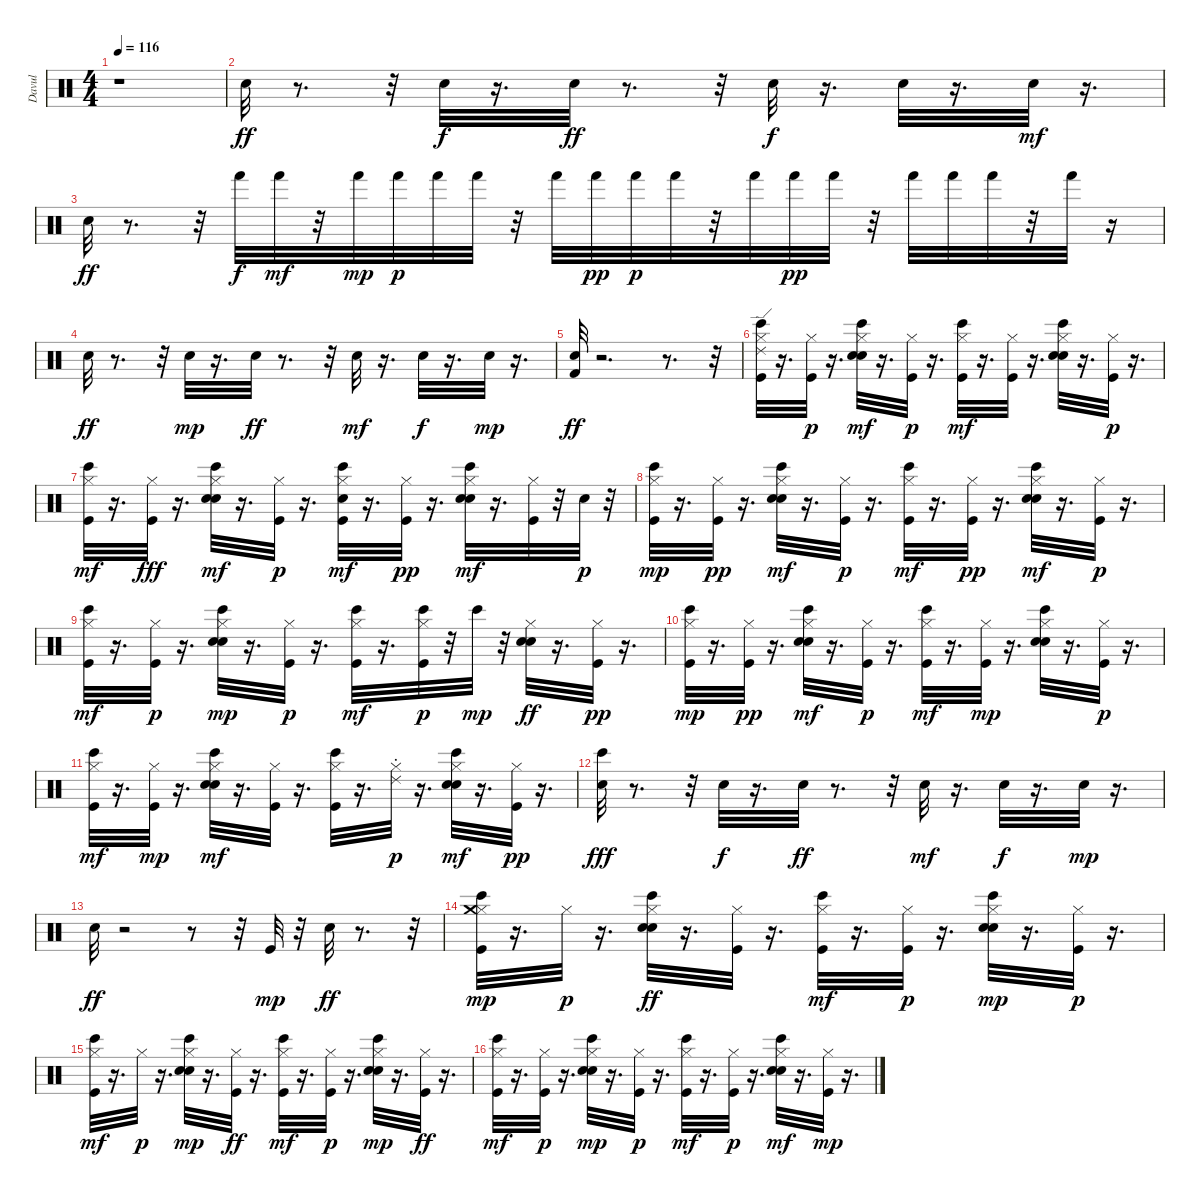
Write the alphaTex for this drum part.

\track ("Davul" "Davul") {instrument percussion}
\staff {score}
\articulation defaults
\ts (4 4)
\tempo 116
\clef neutral
\ks c
r.1{dy ff} |
"Snare (hit) 2".32{balance 8} r.8{d} r.32 "Snare (hit) 2".32{dy f} r.16{d} "Snare (hit) 2".32{dy ff} r.8{d} r.32 "Snare (hit) 2".32{dy f} r.16{d} "Snare (hit) 2".32 r.16{d} "Snare (hit) 2".32{dy mf} r.16{d} |
"Snare (hit) 2".32{dy ff} r.8{d} r.32 "Hand (hit)".32{dy f} "Hand (hit)".32{dy mf} r.32 "Hand (hit)".32{dy mp} "Hand (hit)".32{dy p} "Hand (hit)".32 "Hand (hit)".32 r.32 "Hand (hit)".32 "Hand (hit)".32{dy pp} "Hand (hit)".32{dy p} "Hand (hit)".32 r.32 "Hand (hit)".32 "Hand (hit)".32{dy pp} "Hand (hit)".32 r.32 "Hand (hit)".32 "Hand (hit)".32 "Hand (hit)".32 r.32 "Hand (hit)".32 r.16 |
"Snare (hit) 2".32{dy ff} r.8{d} r.32 "Snare (hit) 2".32{dy mp} r.16{d} "Snare (hit) 2".32{dy ff} r.8{d} r.32 "Snare (hit) 2".32{dy mf} r.16{d} "Snare (hit) 2".32{dy f} r.16{d} "Snare (hit) 2".32{dy mp} r.16{d} |
("Kick (hit) 2" "Snare (hit) 2").32{dy ff} r.2{d} r.8{d} r.32 |
("Bongo High (hit)" "Ride (edge) 2" "Hi-Hat (closed)" "Kick (hit)").32 r.16{d} ("Kick (hit)" "Hi-Hat (closed)").32{dy p} r.16{d} ("Hi-Hat (closed)" "Electric Snare (hit)" "Snare (hit) 2" "Bongo High (hit)").32{dy mf} r.16{d} ("Kick (hit)" "Hi-Hat (closed)").32{dy p} r.16{d} ("Kick (hit)" "Hi-Hat (closed)" "Bongo High (hit)").32{dy mf} r.16{d} ("Hi-Hat (closed)" "Kick (hit)").32 r.16{d} ("Snare (hit) 2" "Hi-Hat (closed)" "Bongo High (hit)" "Electric Snare (hit)").32 r.16{d} ("Kick (hit)" "Hi-Hat (closed)").32{dy p} r.16{d} |
("Kick (hit)" "Bongo High (hit)" "Hi-Hat (closed)").32{dy mf} r.16{d} ("Hi-Hat (closed)" "Kick (hit)").32{dy fff} r.16{d} ("Hi-Hat (closed)" "Snare (hit) 2" "Electric Snare (hit)" "Bongo High (hit)").32{dy mf} r.16{d} ("Kick (hit)" "Hi-Hat (closed)").32{dy p} r.16{d} ("Kick (hit)" "Snare (hit)" "Hi-Hat (closed)" "Bongo High (hit)").32{dy mf} r.16{d} ("Kick (hit)" "Hi-Hat (closed)").32{dy pp} r.16{d} ("Snare (hit) 2" "Bongo High (hit)" "Hi-Hat (closed)" "Electric Snare (hit)").32{dy mf} r.16{d} ("Hi-Hat (closed)" "Kick (hit)").32 r.32 "Electric Snare (hit)".32{dy p} r.32 |
("Kick (hit)" "Bongo High (hit)" "Hi-Hat (closed)").32{dy mp} r.16{d} ("Kick (hit)" "Hi-Hat (closed)").32{dy pp} r.16{d} ("Snare (hit) 2" "Hi-Hat (closed)" "Electric Snare (hit)" "Bongo High (hit)").32{dy mf} r.16{d} ("Hi-Hat (closed)" "Kick (hit)").32{dy p} r.16{d} ("Kick (hit)" "Hi-Hat (closed)" "Bongo High (hit)").32{dy mf} r.16{d} ("Kick (hit)" "Hi-Hat (closed)").32{dy pp} r.16{d} ("Snare (hit) 2" "Hi-Hat (closed)" "Bongo High (hit)" "Electric Snare (hit)").32{dy mf} r.16{d} ("Hi-Hat (closed)" "Kick (hit)").32{dy p} r.16{d} |
("Hi-Hat (closed)" "Kick (hit)" "Bongo High (hit)").32{dy mf} r.16{d} ("Kick (hit)" "Hi-Hat (closed)").32{dy p} r.16{d} ("Snare (hit) 2" "Hi-Hat (closed)" "Bongo High (hit)" "Electric Snare (hit)").32{dy mp} r.16{d} ("Kick (hit)" "Hi-Hat (closed)").32{dy p} r.16{d} ("Kick (hit)" "Hi-Hat (closed)" "Bongo High (hit)").32{dy mf} r.16{d} ("Kick (hit)" "Bongo High (hit)" "Hi-Hat (closed)").32{dy p} r.32 "Bongo High (hit)".32{dy mp} r.32 ("Electric Snare (hit)" "Hi-Hat (closed)" "Snare (hit) 2").32{dy ff} r.16{d} ("Hi-Hat (closed)" "Kick (hit)").32{dy pp} r.16{d} |
("Kick (hit)" "Hi-Hat (closed)" "Bongo High (hit)").32{dy mp} r.16{d} ("Kick (hit)" "Hi-Hat (closed)").32{dy pp} r.16{d} ("Snare (hit) 2" "Hi-Hat (closed)" "Bongo High (hit)" "Electric Snare (hit)").32{dy mf} r.16{d} ("Kick (hit)" "Hi-Hat (closed)").32{dy p} r.16{d} ("Kick (hit)" "Bongo High (hit)" "Hi-Hat (closed)").32{dy mf} r.16{d} ("Hi-Hat (closed)" "Kick (hit)").32{dy mp} r.16{d} ("Snare (hit) 2" "Hi-Hat (closed)" "Bongo High (hit)" "Electric Snare (hit)").32 r.16{d} ("Kick (hit)" "Hi-Hat (closed)").32{dy p} r.16{d} |
("Hi-Hat (closed)" "Kick (hit)" "Bongo High (hit)").32{dy mf} r.16{d} ("Hi-Hat (closed)" "Kick (hit)").32{dy mp} r.16{d} ("Electric Snare (hit)" "Snare (hit) 2" "Hi-Hat (closed)" "Bongo High (hit)").32{dy mf} r.16{d} ("Hi-Hat (closed)" "Kick (hit)").32 r.16{d} ("Bongo High (hit)" "Hi-Hat (closed)" "Kick (hit)").32 r.16{d} ("Ride (choke) 2" "Hi-Hat (closed)").32{dy p} r.16{d} ("Electric Snare (hit)" "Bongo High (hit)" "Snare (hit) 2" "Hi-Hat (closed)").32{dy mf} r.16{d} ("Kick (hit)" "Hi-Hat (closed)").32{dy pp} r.16{d} |
("Bongo High (hit)" "Snare (hit) 2").32{dy fff} r.8{d} r.32 "Snare (hit) 2".32{dy f} r.16{d} "Snare (hit) 2".32{dy ff} r.8{d} r.32 "Snare (hit) 2".32{dy mf} r.16{d} "Snare (hit) 2".32{dy f} r.16{d} "Snare (hit) 2".32{dy mp} r.16{d} |
"Snare (hit) 2".32{dy ff} r.2 r.8 r.32 "Kick (hit)".32{dy mp} r.32 "Electric Snare (hit)".32{dy ff} r.8{d} r.32 |
("Kick (hit)" "Hi-Hat (closed)" "Bongo High (hit)" "Crash medium (hit)").32{dy mp} r.16{d} "Hi-Hat (closed)".32{dy p} r.16{d} ("Electric Snare (hit)" "Hi-Hat (closed)" "Bongo High (hit)" "Snare (hit) 2").32{dy ff} r.16{d} ("Hi-Hat (closed)" "Kick (hit)").32 r.16{d} ("Kick (hit)" "Hi-Hat (closed)" "Bongo High (hit)").32{dy mf} r.16{d} ("Kick (hit)" "Hi-Hat (closed)").32{dy p} r.16{d} ("Snare (hit) 2" "Hi-Hat (closed)" "Bongo High (hit)" "Electric Snare (hit)").32{dy mp} r.16{d} ("Kick (hit)" "Hi-Hat (closed)").32{dy p} r.16{d} |
("Kick (hit)" "Bongo High (hit)" "Hi-Hat (closed)").32{dy mf} r.16{d} "Hi-Hat (closed)".32{dy p} r.16{d} ("Hi-Hat (closed)" "Snare (hit) 2" "Bongo High (hit)" "Electric Snare (hit)").32{dy mp} r.16{d} ("Hi-Hat (closed)" "Kick (hit)").32{dy ff} r.16{d} ("Kick (hit)" "Hi-Hat (closed)" "Bongo High (hit)").32{dy mf} r.16{d} ("Hi-Hat (closed)" "Kick (hit)").32{dy p} r.16{d} ("Snare (hit) 2" "Hi-Hat (closed)" "Bongo High (hit)" "Electric Snare (hit)").32{dy mp} r.16{d} ("Hi-Hat (closed)" "Kick (hit)").32{dy ff} r.16{d} |
("Kick (hit)" "Bongo High (hit)" "Hi-Hat (closed)").32{dy mf} r.16{d} ("Hi-Hat (closed)" "Kick (hit)").32{dy p} r.16{d} ("Bongo High (hit)" "Hi-Hat (closed)" "Snare (hit) 2" "Electric Snare (hit)").32{dy mp} r.16{d} ("Kick (hit)" "Hi-Hat (closed)").32{dy p} r.16{d} ("Kick (hit)" "Bongo High (hit)" "Hi-Hat (closed)").32{dy mf} r.16{d} ("Kick (hit)" "Hi-Hat (closed)").32{dy p} r.16{d} ("Bongo High (hit)" "Electric Snare (hit)" "Hi-Hat (closed)" "Snare (hit) 2").32{dy mf} r.16{d} ("Hi-Hat (closed)" "Kick (hit)").32{dy mp} r.16{d}
